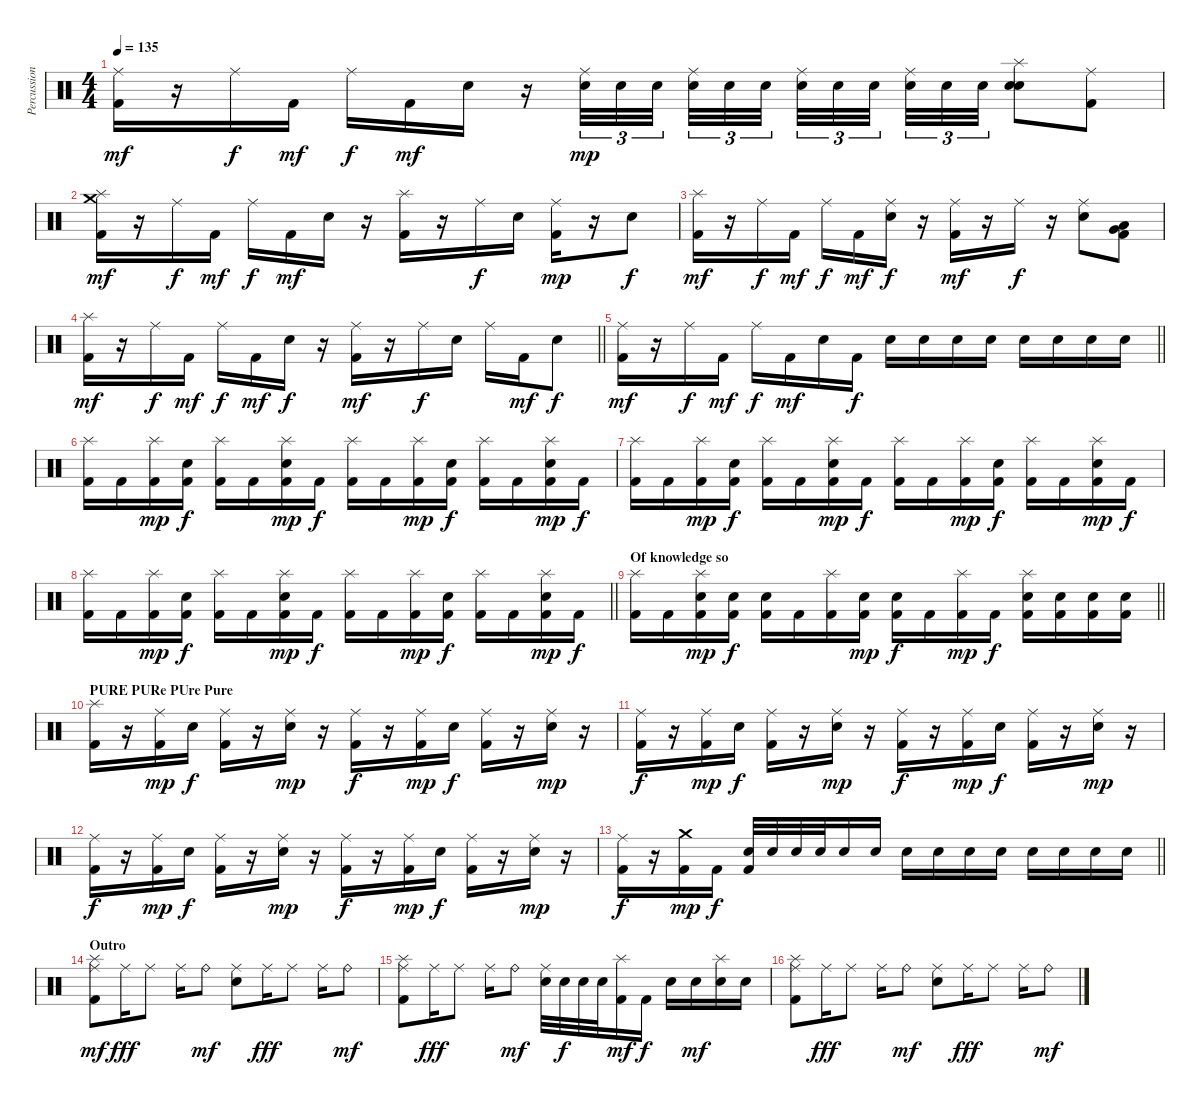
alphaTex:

\track ("Percussion" "Percussion") {instrument percussion}
\staff {score}
\articulation defaults
\ts (4 4)
\tempo 135
\clef neutral
\ks c
("Ride (middle)" "Kick (hit) 2").16{dy mf} r.16 "Ride (middle)".16{dy f} "Kick (hit) 2".16{dy mf} "Ride (middle)".16{dy f} "Kick (hit) 2".16{dy mf} "Electric Snare (hit)".16 r.16 ("Ride (middle)" "Electric Snare (hit)").32{tu (3 2) dy mp} "Electric Snare (hit)".32{tu (3 2)} "Electric Snare (hit)".32{tu (3 2)} ("Ride (middle)" "Electric Snare (hit)").32{tu (3 2)} "Electric Snare (hit)".32{tu (3 2)} "Electric Snare (hit)".32{tu (3 2)} ("Ride (middle)" "Electric Snare (hit)").32{tu (3 2)} "Electric Snare (hit)".32{tu (3 2)} "Electric Snare (hit)".32{tu (3 2)} ("Ride (middle)" "Electric Snare (hit)").32{tu (3 2)} "Electric Snare (hit)".32{tu (3 2)} "Electric Snare (hit)".32{tu (3 2)} ("Splash (hit)" "Electric Snare (hit)" "Snare (hit) 2").8 ("Ride (middle)" "Kick (hit) 2").8 |
("Splash (hit)" "Crash medium (hit)" "Kick (hit) 2").16{dy mf} r.16 "Ride (middle)".16{dy f} "Kick (hit) 2".16{dy mf} "Ride (middle)".16{dy f} "Kick (hit) 2".16{dy mf} "Electric Snare (hit)".16 r.16 ("Splash (hit)" "Kick (hit) 2").16 r.16 "Ride (middle)".16{dy f} "Electric Snare (hit)".16 ("Ride (middle)" "Kick (hit) 2").16{dy mp} r.16 "Electric Snare (hit)".8{dy f} |
("Splash (hit)" "Kick (hit) 2").16{dy mf} r.16 "Ride (middle)".16{dy f} "Kick (hit) 2".16{dy mf} "Ride (middle)".16{dy f} "Kick (hit) 2".16{dy mf} ("Ride (middle)" "Electric Snare (hit)").16{dy f} r.16 ("Ride (middle)" "Kick (hit) 2").16{dy mf} r.16 "Ride (middle)".16{dy f} r.16 ("Ride (middle)" "Electric Snare (hit)").8 ("Very Low Tom (hit)" "Low Floor Tom (hit)" "Kick (hit) 2").8 |
\barLineRight lightlight
("Splash (hit)" "Kick (hit) 2").16{dy mf} r.16 "Ride (middle)".16{dy f} "Kick (hit) 2".16{dy mf} "Ride (middle)".16{dy f} "Kick (hit) 2".16{dy mf} "Electric Snare (hit)".16{dy f} r.16 ("Ride (middle)" "Kick (hit) 2").16{dy mf} r.16 "Ride (middle)".16{dy f} "Electric Snare (hit)".16 "Ride (middle)".16 "Kick (hit) 2".16{dy mf} "Electric Snare (hit)".8{dy f} |
\barLineRight lightlight
("Ride (middle)" "Kick (hit) 2").16{dy mf} r.16 "Ride (middle)".16{dy f} "Kick (hit) 2".16{dy mf} "Ride (middle)".16{dy f} "Kick (hit) 2".16{dy mf} "Electric Snare (hit)".16 "Kick (hit) 2".16{dy f} "Electric Snare (hit)".16 "Electric Snare (hit)".16 "Electric Snare (hit)".16 "Electric Snare (hit)".16 "Electric Snare (hit)".16 "Electric Snare (hit)".16 "Electric Snare (hit)".16 "Electric Snare (hit)".16 |
("Splash (hit)" "Kick (hit) 2").16 "Kick (hit) 2".16 ("Splash (hit)" "Kick (hit) 2").16{dy mp} ("Electric Snare (hit)" "Kick (hit) 2").16{dy f} ("Splash (hit)" "Kick (hit) 2").16 "Kick (hit) 2".16 ("Splash (hit)" "Electric Snare (hit)" "Kick (hit) 2").16{dy mp} "Kick (hit) 2".16{dy f} ("Splash (hit)" "Kick (hit) 2").16 "Kick (hit) 2".16 ("Splash (hit)" "Kick (hit) 2").16{dy mp} ("Electric Snare (hit)" "Kick (hit) 2").16{dy f} ("Splash (hit)" "Kick (hit) 2").16 "Kick (hit) 2".16 ("Splash (hit)" "Electric Snare (hit)" "Kick (hit) 2").16{dy mp} "Kick (hit) 2".16{dy f} |
("Splash (hit)" "Kick (hit) 2").16 "Kick (hit) 2".16 ("Splash (hit)" "Kick (hit) 2").16{dy mp} ("Electric Snare (hit)" "Kick (hit) 2").16{dy f} ("Splash (hit)" "Kick (hit) 2").16 "Kick (hit) 2".16 ("Splash (hit)" "Electric Snare (hit)" "Kick (hit) 2").16{dy mp} "Kick (hit) 2".16{dy f} ("Splash (hit)" "Kick (hit) 2").16 "Kick (hit) 2".16 ("Splash (hit)" "Kick (hit) 2").16{dy mp} ("Electric Snare (hit)" "Kick (hit) 2").16{dy f} ("Splash (hit)" "Kick (hit) 2").16 "Kick (hit) 2".16 ("Splash (hit)" "Electric Snare (hit)" "Kick (hit) 2").16{dy mp} "Kick (hit) 2".16{dy f} |
\barLineRight lightlight
("Splash (hit)" "Kick (hit) 2").16 "Kick (hit) 2".16 ("Splash (hit)" "Kick (hit) 2").16{dy mp} ("Electric Snare (hit)" "Kick (hit) 2").16{dy f} ("Splash (hit)" "Kick (hit) 2").16 "Kick (hit) 2".16 ("Splash (hit)" "Electric Snare (hit)" "Kick (hit) 2").16{dy mp} "Kick (hit) 2".16{dy f} ("Splash (hit)" "Kick (hit) 2").16 "Kick (hit) 2".16 ("Splash (hit)" "Kick (hit) 2").16{dy mp} ("Electric Snare (hit)" "Kick (hit) 2").16{dy f} ("Splash (hit)" "Kick (hit) 2").16 "Kick (hit) 2".16 ("Splash (hit)" "Electric Snare (hit)" "Kick (hit) 2").16{dy mp} "Kick (hit) 2".16{dy f} |
\section ("" "Of knowledge so")
\barLineRight lightlight
("Splash (hit)" "Kick (hit) 2").16 "Kick (hit) 2".16 ("Splash (hit)" "Electric Snare (hit)" "Kick (hit) 2").16{dy mp} ("Electric Snare (hit)" "Kick (hit) 2").16{dy f} ("Electric Snare (hit)" "Kick (hit) 2").16 "Kick (hit) 2".16 ("Splash (hit)" "Kick (hit) 2").16 ("Electric Snare (hit)" "Kick (hit) 2").16{dy mp} ("Electric Snare (hit)" "Kick (hit) 2").16{dy f} "Kick (hit) 2".16 ("Splash (hit)" "Kick (hit) 2").16{dy mp} "Kick (hit) 2".16{dy f} ("Splash (hit)" "Electric Snare (hit)" "Kick (hit) 2").16 ("Electric Snare (hit)" "Kick (hit) 2").16 ("Electric Snare (hit)" "Kick (hit) 2").16 ("Electric Snare (hit)" "Kick (hit) 2").16 |
\section ("" "PURE PURe PUre Pure")
("Splash (hit)" "Kick (hit) 2").16 r.16 ("Ride (middle)" "Kick (hit) 2").16{dy mp} "Electric Snare (hit)".16{dy f} ("Ride (middle)" "Kick (hit) 2").16 r.16 ("Ride (middle)" "Electric Snare (hit)").16{dy mp} r.16 ("Ride (middle)" "Kick (hit) 2").16{dy f} r.16 ("Ride (middle)" "Kick (hit) 2").16{dy mp} "Electric Snare (hit)".16{dy f} ("Ride (middle)" "Kick (hit) 2").16 r.16 ("Ride (middle)" "Electric Snare (hit)").16{dy mp} r.16 |
("Ride (middle)" "Kick (hit) 2").16{dy f} r.16 ("Ride (middle)" "Kick (hit) 2").16{dy mp} "Electric Snare (hit)".16{dy f} ("Ride (middle)" "Kick (hit) 2").16 r.16 ("Ride (middle)" "Electric Snare (hit)").16{dy mp} r.16 ("Ride (middle)" "Kick (hit) 2").16{dy f} r.16 ("Ride (middle)" "Kick (hit) 2").16{dy mp} "Electric Snare (hit)".16{dy f} ("Ride (middle)" "Kick (hit) 2").16 r.16 ("Ride (middle)" "Electric Snare (hit)").16{dy mp} r.16 |
("Ride (middle)" "Kick (hit) 2").16{dy f} r.16 ("Ride (middle)" "Kick (hit) 2").16{dy mp} "Electric Snare (hit)".16{dy f} ("Ride (middle)" "Kick (hit) 2").16 r.16 ("Ride (middle)" "Electric Snare (hit)").16{dy mp} r.16 ("Ride (middle)" "Kick (hit) 2").16{dy f} r.16 ("Ride (middle)" "Kick (hit) 2").16{dy mp} "Electric Snare (hit)".16{dy f} ("Ride (middle)" "Kick (hit) 2").16 r.16 ("Ride (middle)" "Electric Snare (hit)").16{dy mp} r.16 |
\barLineRight lightlight
("Ride (middle)" "Kick (hit) 2").16{dy f} r.16 ("Crash medium (hit)" "Kick (hit) 2").16{dy mp} "Kick (hit) 2".16{dy f} ("Electric Snare (hit)" "Kick (hit) 2").32 "Electric Snare (hit)".32 "Electric Snare (hit)".32 "Electric Snare (hit)".32 "Electric Snare (hit)".16 "Electric Snare (hit)".16 "Electric Snare (hit)".16 "Electric Snare (hit)".16 "Electric Snare (hit)".16 "Electric Snare (hit)".16 "Electric Snare (hit)".16 "Electric Snare (hit)".16 "Electric Snare (hit)".16 "Electric Snare (hit)".16 |
\section ("" "Outro")
("Ride (middle)" "Splash (hit)" "Kick (hit) 2").8{dy mf} "Ride (middle)".16{dy fff} "Ride (middle)".8 "Ride (middle)".16 "Ride (bell)".8{dy mf} ("Ride (middle)" "Electric Snare (hit)").8 "Ride (middle)".16{dy fff} "Ride (middle)".8 "Ride (middle)".16 "Ride (bell)".8{dy mf} |
("Ride (middle)" "Splash (hit)" "Kick (hit) 2").8 "Ride (middle)".16{dy fff} "Ride (middle)".8 "Ride (middle)".16 "Ride (bell)".8{dy mf} ("Ride (middle)" "Electric Snare (hit)").32 "Electric Snare (hit)".32{dy f} "Electric Snare (hit)".32 "Electric Snare (hit)".32 ("Splash (hit)" "Kick (hit) 2").16{dy mf} "Kick (hit) 2".16{dy f} "Electric Snare (hit)".16 "Electric Snare (hit)".16{dy mf} ("Splash (hit)" "Electric Snare (hit)").16 "Electric Snare (hit)".16 |
("Ride (middle)" "Splash (hit)" "Kick (hit) 2").8 "Ride (middle)".16{dy fff} "Ride (middle)".8 "Ride (middle)".16 "Ride (bell)".8{dy mf} ("Ride (middle)" "Electric Snare (hit)").8 "Ride (middle)".16{dy fff} "Ride (middle)".8 "Ride (middle)".16 "Ride (bell)".8{dy mf}
